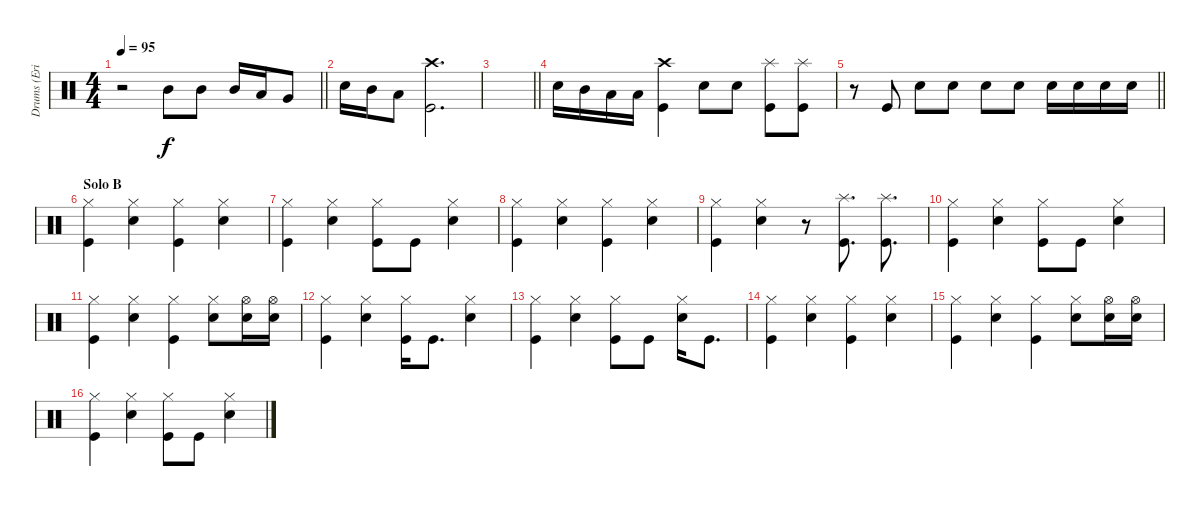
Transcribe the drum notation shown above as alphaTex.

\track ("Drums (Eric Singer)" "Drums (Eri") {instrument percussion}
\staff {score}
\articulation defaults
\ts (4 4)
\tempo 95
\clef neutral
\barLineRight lightlight
\ks c
r.2{dy f} "Mid Tom (hit)".8 "Mid Tom (hit)".8 "Mid Tom (hit)".16 "Low Tom (hit)".16 "Very Low Tom (hit)".8 |
"Snare (hit) 2".16 "Mid Tom (hit)".16 "Low Tom (hit)".8 ("Crash high (hit)" "Kick (hit)").2{d} |
\barLineRight lightlight
|
"Snare (hit) 2".16 "Mid Tom (hit)".16 "Low Tom (hit)".16 "Low Tom (hit)".16 ("Crash high (hit)" "Kick (hit)").4 "Snare (hit) 2".8 "Snare (hit) 2".8 ("Splash (hit)" "Kick (hit)").8 ("Splash (hit)" "Kick (hit)").8 |
\barLineRight lightlight
r.8 "Kick (hit)".8 "Snare (hit) 2".8 "Snare (hit) 2".8 "Snare (hit) 2".8 "Snare (hit) 2".8 "Snare (hit) 2".16 "Snare (hit) 2".16 "Snare (hit) 2".16 "Snare (hit) 2".16 |
\section ("" "Solo B")
("Hi-Hat (closed)" "Kick (hit)").4 ("Hi-Hat (closed)" "Snare (hit) 2").4 ("Hi-Hat (closed)" "Kick (hit)").4 ("Hi-Hat (closed)" "Snare (hit) 2").4 |
("Hi-Hat (closed)" "Kick (hit)").4 ("Hi-Hat (closed)" "Snare (hit) 2").4 ("Hi-Hat (closed)" "Kick (hit)").8 "Kick (hit)".8 ("Hi-Hat (closed)" "Snare (hit) 2").4 |
("Hi-Hat (closed)" "Kick (hit)").4 ("Hi-Hat (closed)" "Snare (hit) 2").4 ("Hi-Hat (closed)" "Kick (hit)").4 ("Hi-Hat (closed)" "Snare (hit) 2").4 |
("Hi-Hat (closed)" "Kick (hit)").4 ("Hi-Hat (closed)" "Snare (hit) 2").4 r.8 ("Splash (hit)" "Kick (hit)").8{d} ("Splash (hit)" "Kick (hit)").8{d} |
("Hi-Hat (closed)" "Kick (hit)").4 ("Hi-Hat (closed)" "Snare (hit) 2").4 ("Hi-Hat (closed)" "Kick (hit)").8 "Kick (hit)".8 ("Hi-Hat (closed)" "Snare (hit) 2").4 |
("Hi-Hat (closed)" "Kick (hit)").4 ("Hi-Hat (closed)" "Snare (hit) 2").4 ("Hi-Hat (closed)" "Kick (hit)").4 ("Hi-Hat (closed)" "Snare (hit) 2").8 ("Hi-Hat (open)" "Snare (hit) 2").16 ("Hi-Hat (open)" "Snare (hit) 2").16 |
("Hi-Hat (closed)" "Kick (hit)").4 ("Hi-Hat (closed)" "Snare (hit) 2").4 ("Hi-Hat (closed)" "Kick (hit)").16 "Kick (hit)".8{d} ("Hi-Hat (closed)" "Snare (hit) 2").4 |
("Hi-Hat (closed)" "Kick (hit)").4 ("Hi-Hat (closed)" "Snare (hit) 2").4 ("Hi-Hat (closed)" "Kick (hit)").8 "Kick (hit)".8 ("Hi-Hat (closed)" "Snare (hit) 2").16 "Kick (hit)".8{d} |
("Hi-Hat (closed)" "Kick (hit)").4 ("Hi-Hat (closed)" "Snare (hit) 2").4 ("Hi-Hat (closed)" "Kick (hit)").4 ("Hi-Hat (closed)" "Snare (hit) 2").4 |
("Hi-Hat (closed)" "Kick (hit)").4 ("Hi-Hat (closed)" "Snare (hit) 2").4 ("Hi-Hat (closed)" "Kick (hit)").4 ("Hi-Hat (closed)" "Snare (hit) 2").8 ("Hi-Hat (open)" "Snare (hit) 2").16 ("Hi-Hat (open)" "Snare (hit) 2").16 |
("Hi-Hat (closed)" "Kick (hit)").4 ("Hi-Hat (closed)" "Snare (hit) 2").4 ("Hi-Hat (closed)" "Kick (hit)").8 "Kick (hit)".8 ("Hi-Hat (closed)" "Snare (hit) 2").4
